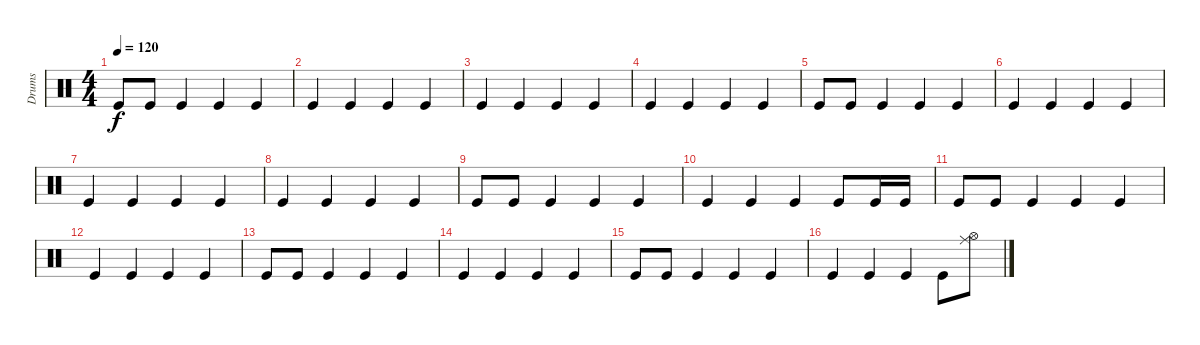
\track ("Drums" "Drums") {instrument percussion}
\staff {score}
\articulation defaults
\ts (4 4)
\tempo 120
\clef neutral
\ks c "Kick (hit)".8{dy f} "Kick (hit)".8 "Kick (hit)".4 "Kick (hit)".4 "Kick (hit)".4
|
"Kick (hit)".4 "Kick (hit)".4 "Kick (hit)".4 "Kick (hit)".4 |
"Kick (hit)".4 "Kick (hit)".4 "Kick (hit)".4 "Kick (hit)".4 |
"Kick (hit)".4 "Kick (hit)".4 "Kick (hit)".4 "Kick (hit)".4 |
"Kick (hit)".8 "Kick (hit)".8 "Kick (hit)".4 "Kick (hit)".4 "Kick (hit)".4 |
"Kick (hit)".4 "Kick (hit)".4 "Kick (hit)".4 "Kick (hit)".4 |
"Kick (hit)".4 "Kick (hit)".4 "Kick (hit)".4 "Kick (hit)".4 |
"Kick (hit)".4 "Kick (hit)".4 "Kick (hit)".4 "Kick (hit)".4 |
"Kick (hit)".8 "Kick (hit)".8 "Kick (hit)".4 "Kick (hit)".4 "Kick (hit)".4 |
"Kick (hit)".4 "Kick (hit)".4 "Kick (hit)".4 "Kick (hit)".8 "Kick (hit)".16 "Kick (hit)".16 |
"Kick (hit)".8 "Kick (hit)".8 "Kick (hit)".4 "Kick (hit)".4 "Kick (hit)".4 |
"Kick (hit)".4 "Kick (hit)".4 "Kick (hit)".4 "Kick (hit)".4 |
"Kick (hit)".8 "Kick (hit)".8 "Kick (hit)".4 "Kick (hit)".4 "Kick (hit)".4 |
"Kick (hit)".4 "Kick (hit)".4 "Kick (hit)".4 "Kick (hit)".4 |
"Kick (hit)".8 "Kick (hit)".8 "Kick (hit)".4 "Kick (hit)".4 "Kick (hit)".4 |
"Kick (hit)".4 "Kick (hit)".4 "Kick (hit)".4 "Kick (hit)".8 ("Ride (middle)" "Hi-Hat (open)").8
